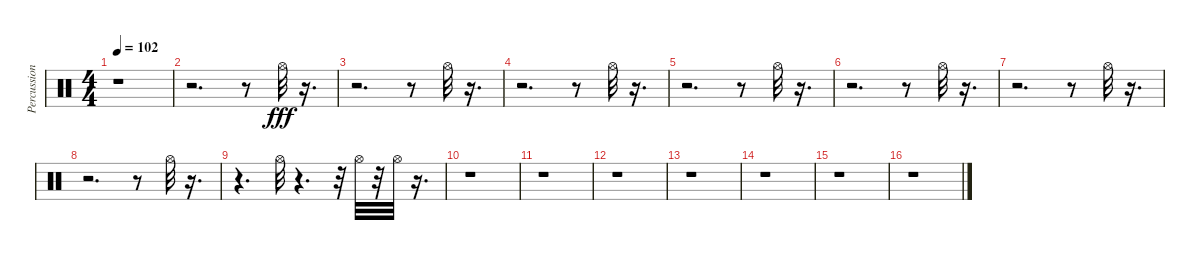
\track ("Percussion" "Percussion") {instrument percussion}
\staff {score}
\articulation defaults
\ts (4 4)
\tempo 102
\clef neutral
\ks c
r.1{dy fff} |
r.2{d} r.8 "Hi-Hat (open)".32 r.16{d} |
r.2{d} r.8 "Hi-Hat (open)".32 r.16{d} |
r.2{d} r.8 "Hi-Hat (open)".32 r.16{d} |
r.2{d} r.8 "Hi-Hat (open)".32 r.16{d} |
r.2{d} r.8 "Hi-Hat (open)".32 r.16{d} |
r.2{d} r.8 "Hi-Hat (open)".32 r.16{d} |
r.2{d} r.8 "Hi-Hat (open)".32 r.16{d} |
r.4{d} "Hi-Hat (open)".32 r.4{d} r.32 "Hi-Hat (open)".32 r.32 "Hi-Hat (open)".32 r.16{d} |
r.1 |
r.1 |
r.1 |
r.1 |
r.1 |
r.1 |
r.1
